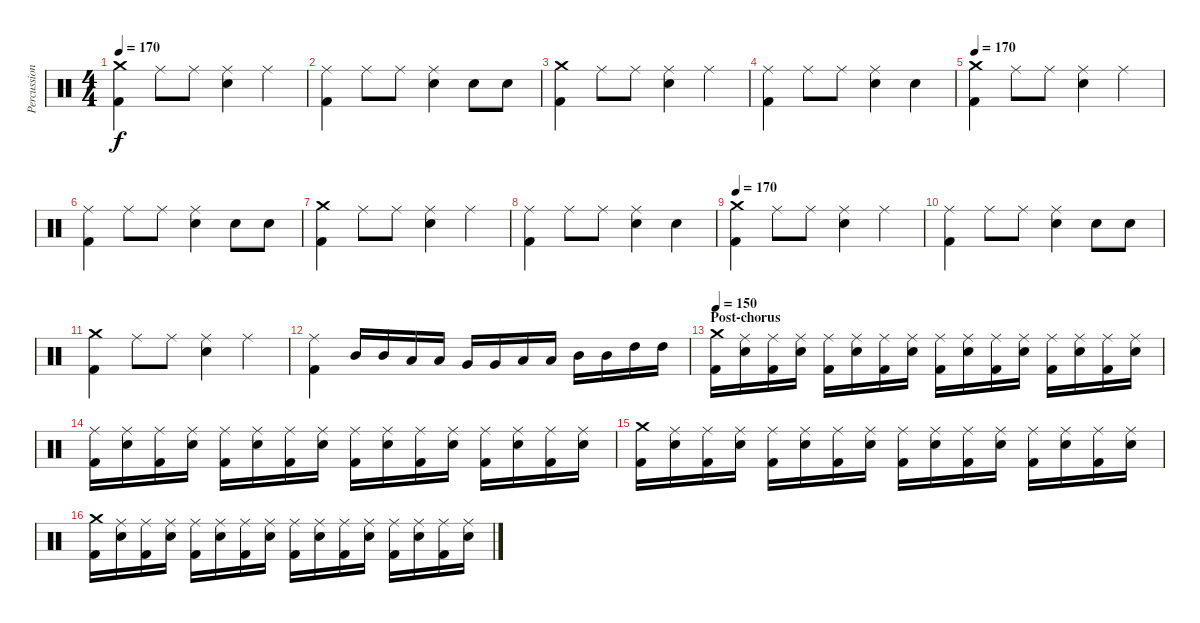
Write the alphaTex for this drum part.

\track ("Percussion" "Percussion") {instrument percussion}
\staff {score}
\articulation defaults
\ts (4 4)
\tempo 170
\clef neutral
\ks c
("Crash medium (hit)" "Kick (hit) 2").4{dy f} "Ride (middle)".8 "Ride (middle)".8 ("Ride (middle)" "Electric Snare (hit)").4 "Ride (middle)".4 |
("Ride (middle)" "Kick (hit) 2").4 "Ride (middle)".8 "Ride (middle)".8 ("Ride (middle)" "Electric Snare (hit)").4 "Electric Snare (hit)".8 "Electric Snare (hit)".8 |
("Crash medium (hit)" "Kick (hit) 2").4 "Ride (middle)".8 "Ride (middle)".8 ("Ride (middle)" "Electric Snare (hit)").4 "Ride (middle)".4 |
("Ride (middle)" "Kick (hit) 2").4 "Ride (middle)".8 "Ride (middle)".8 ("Ride (middle)" "Electric Snare (hit)").4 "Electric Snare (hit)".4 |
\tempo 170
("Crash medium (hit)" "Kick (hit) 2").4 "Ride (middle)".8 "Ride (middle)".8 ("Ride (middle)" "Electric Snare (hit)").4 "Ride (middle)".4 |
("Ride (middle)" "Kick (hit) 2").4 "Ride (middle)".8 "Ride (middle)".8 ("Ride (middle)" "Electric Snare (hit)").4 "Electric Snare (hit)".8 "Electric Snare (hit)".8 |
("Crash medium (hit)" "Kick (hit) 2").4 "Ride (middle)".8 "Ride (middle)".8 ("Ride (middle)" "Electric Snare (hit)").4 "Ride (middle)".4 |
("Ride (middle)" "Kick (hit) 2").4 "Ride (middle)".8 "Ride (middle)".8 ("Ride (middle)" "Electric Snare (hit)").4 "Electric Snare (hit)".4 |
\tempo 170
("Crash medium (hit)" "Kick (hit) 2").4 "Ride (middle)".8 "Ride (middle)".8 ("Ride (middle)" "Electric Snare (hit)").4 "Ride (middle)".4 |
("Ride (middle)" "Kick (hit) 2").4 "Ride (middle)".8 "Ride (middle)".8 ("Ride (middle)" "Electric Snare (hit)").4 "Electric Snare (hit)".8 "Electric Snare (hit)".8 |
("Crash medium (hit)" "Kick (hit) 2").4 "Ride (middle)".8 "Ride (middle)".8 ("Ride (middle)" "Electric Snare (hit)").4 "Ride (middle)".4 |
("Ride (middle)" "Kick (hit) 2").4 "Mid Tom (hit)".16 "Mid Tom (hit)".16 "Low Tom (hit)".16 "Low Tom (hit)".16 "Very Low Tom (hit)".16 "Very Low Tom (hit)".16 "Low Tom (hit)".16 "Low Tom (hit)".16 "Mid Tom (hit)".16 "Mid Tom (hit)".16 "High Tom (hit)".16 "High Tom (hit)".16 |
\section ("" "Post-chorus")
\tempo 150
("Crash medium (hit)" "Kick (hit) 2").16 ("Ride (middle)" "Electric Snare (hit)").16 ("Ride (middle)" "Kick (hit) 2").16 ("Ride (middle)" "Electric Snare (hit)").16 ("Ride (middle)" "Kick (hit) 2").16 ("Ride (middle)" "Electric Snare (hit)").16 ("Ride (middle)" "Kick (hit) 2").16 ("Ride (middle)" "Electric Snare (hit)").16 ("Ride (middle)" "Kick (hit) 2").16 ("Ride (middle)" "Electric Snare (hit)").16 ("Ride (middle)" "Kick (hit) 2").16 ("Ride (middle)" "Electric Snare (hit)").16 ("Ride (middle)" "Kick (hit) 2").16 ("Ride (middle)" "Electric Snare (hit)").16 ("Ride (middle)" "Kick (hit) 2").16 ("Ride (middle)" "Electric Snare (hit)").16 |
("Ride (middle)" "Kick (hit) 2").16 ("Ride (middle)" "Electric Snare (hit)").16 ("Ride (middle)" "Kick (hit) 2").16 ("Ride (middle)" "Electric Snare (hit)").16 ("Ride (middle)" "Kick (hit) 2").16 ("Ride (middle)" "Electric Snare (hit)").16 ("Ride (middle)" "Kick (hit) 2").16 ("Ride (middle)" "Electric Snare (hit)").16 ("Ride (middle)" "Kick (hit) 2").16 ("Ride (middle)" "Electric Snare (hit)").16 ("Ride (middle)" "Kick (hit) 2").16 ("Ride (middle)" "Electric Snare (hit)").16 ("Ride (middle)" "Kick (hit) 2").16 ("Ride (middle)" "Electric Snare (hit)").16 ("Ride (middle)" "Kick (hit) 2").16 ("Ride (middle)" "Electric Snare (hit)").16 |
("Crash medium (hit)" "Kick (hit) 2").16 ("Ride (middle)" "Electric Snare (hit)").16 ("Ride (middle)" "Kick (hit) 2").16 ("Ride (middle)" "Electric Snare (hit)").16 ("Ride (middle)" "Kick (hit) 2").16 ("Ride (middle)" "Electric Snare (hit)").16 ("Ride (middle)" "Kick (hit) 2").16 ("Ride (middle)" "Electric Snare (hit)").16 ("Ride (middle)" "Kick (hit) 2").16 ("Ride (middle)" "Electric Snare (hit)").16 ("Ride (middle)" "Kick (hit) 2").16 ("Ride (middle)" "Electric Snare (hit)").16 ("Ride (middle)" "Kick (hit) 2").16 ("Ride (middle)" "Electric Snare (hit)").16 ("Ride (middle)" "Kick (hit) 2").16 ("Ride (middle)" "Electric Snare (hit)").16 |
("Crash medium (hit)" "Kick (hit) 2").16 ("Ride (middle)" "Electric Snare (hit)").16 ("Ride (middle)" "Kick (hit) 2").16 ("Ride (middle)" "Electric Snare (hit)").16 ("Ride (middle)" "Kick (hit) 2").16 ("Ride (middle)" "Electric Snare (hit)").16 ("Ride (middle)" "Kick (hit) 2").16 ("Ride (middle)" "Electric Snare (hit)").16 ("Ride (middle)" "Kick (hit) 2").16 ("Ride (middle)" "Electric Snare (hit)").16 ("Ride (middle)" "Kick (hit) 2").16 ("Ride (middle)" "Electric Snare (hit)").16 ("Ride (middle)" "Kick (hit) 2").16 ("Ride (middle)" "Electric Snare (hit)").16 ("Ride (middle)" "Kick (hit) 2").16 ("Ride (middle)" "Electric Snare (hit)").16
